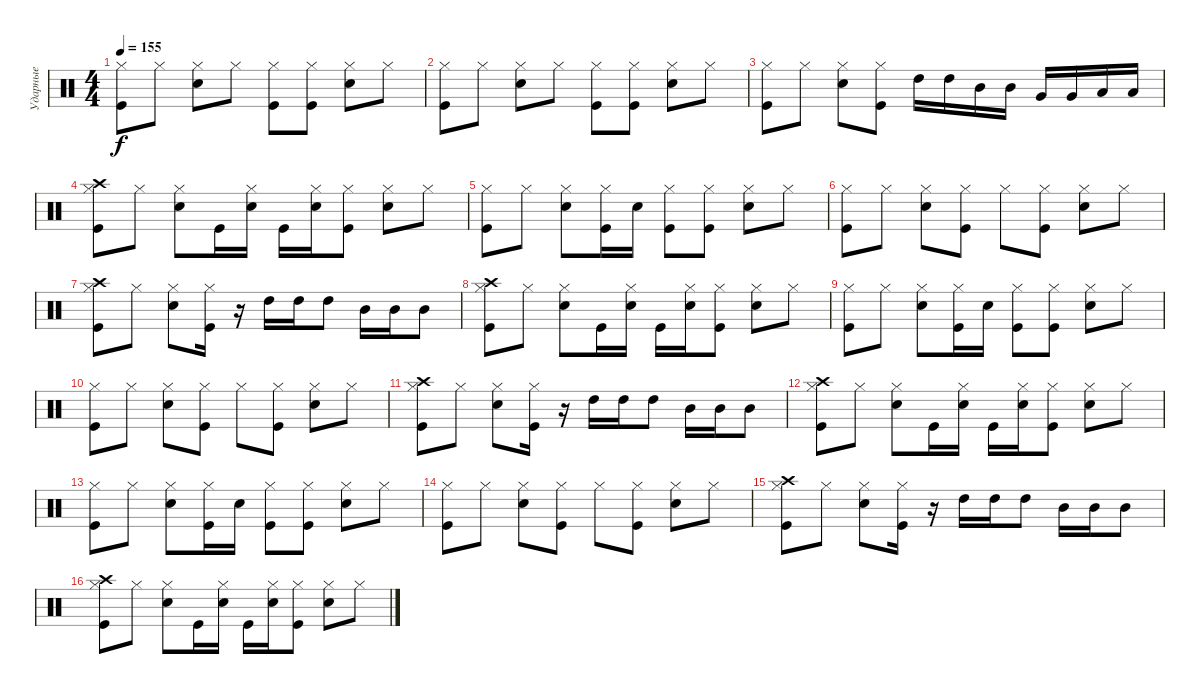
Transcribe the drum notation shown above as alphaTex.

\track ("Ударные" "Ударные") {instrument percussion}
\staff {score}
\articulation defaults
\ts (4 4)
\tempo 155
\clef neutral
\ks c
("Hi-Hat (closed)" "Kick (hit)").8{dy f} "Hi-Hat (closed)".8 ("Hi-Hat (closed)" "Snare (hit) 2").8 "Hi-Hat (closed)".8 ("Hi-Hat (closed)" "Kick (hit)").8 ("Hi-Hat (closed)" "Kick (hit)").8 ("Hi-Hat (closed)" "Snare (hit) 2").8 "Hi-Hat (closed)".8 |
("Hi-Hat (closed)" "Kick (hit)").8 "Hi-Hat (closed)".8 ("Hi-Hat (closed)" "Snare (hit) 2").8 "Hi-Hat (closed)".8 ("Hi-Hat (closed)" "Kick (hit)").8 ("Hi-Hat (closed)" "Kick (hit)").8 ("Hi-Hat (closed)" "Snare (hit) 2").8 "Hi-Hat (closed)".8 |
("Hi-Hat (closed)" "Kick (hit)").8 "Hi-Hat (closed)".8 ("Hi-Hat (closed)" "Snare (hit) 2").8 ("Hi-Hat (closed)" "Kick (hit)").8 "High Tom (hit)".16 "High Tom (hit)".16 "Mid Tom (hit)".16 "Mid Tom (hit)".16 "Very Low Tom (hit)".16 "Very Low Tom (hit)".16 "Low Floor Tom (hit)".16 "Low Floor Tom (hit)".16 |
("Crash high (hit)" "Hi-Hat (closed)" "Kick (hit)").8 "Hi-Hat (closed)".8 ("Hi-Hat (closed)" "Snare (hit) 2").8 "Kick (hit)".16 ("Hi-Hat (closed)" "Snare (hit) 2").16 "Kick (hit)".16 ("Hi-Hat (closed)" "Snare (hit) 2").16 ("Hi-Hat (closed)" "Kick (hit)").8 ("Hi-Hat (closed)" "Snare (hit) 2").8 "Hi-Hat (closed)".8 |
("Hi-Hat (closed)" "Kick (hit)").8 "Hi-Hat (closed)".8 ("Hi-Hat (closed)" "Snare (hit) 2").8 ("Hi-Hat (closed)" "Kick (hit)").16 "Snare (hit) 2".16 ("Hi-Hat (closed)" "Kick (hit)").8 ("Hi-Hat (closed)" "Kick (hit)").8 ("Hi-Hat (closed)" "Snare (hit) 2").8 "Hi-Hat (closed)".8 |
("Hi-Hat (closed)" "Kick (hit)").8 "Hi-Hat (closed)".8 ("Hi-Hat (closed)" "Snare (hit) 2").8 ("Hi-Hat (closed)" "Kick (hit)").8 "Hi-Hat (closed)".8 ("Hi-Hat (closed)" "Kick (hit)").8 ("Hi-Hat (closed)" "Snare (hit) 2").8 "Hi-Hat (closed)".8 |
("Crash high (hit)" "Hi-Hat (closed)" "Kick (hit)").8 "Hi-Hat (closed)".8 ("Hi-Hat (closed)" "Snare (hit) 2").8 ("Hi-Hat (closed)" "Kick (hit)").16 r.16 "High Tom (hit)".16 "High Tom (hit)".16 "High Tom (hit)".8 "Mid Tom (hit)".16 "Mid Tom (hit)".16 "Mid Tom (hit)".8 |
("Crash high (hit)" "Hi-Hat (closed)" "Kick (hit)").8 "Hi-Hat (closed)".8 ("Hi-Hat (closed)" "Snare (hit) 2").8 "Kick (hit)".16 ("Hi-Hat (closed)" "Snare (hit) 2").16 "Kick (hit)".16 ("Hi-Hat (closed)" "Snare (hit) 2").16 ("Hi-Hat (closed)" "Kick (hit)").8 ("Hi-Hat (closed)" "Snare (hit) 2").8 "Hi-Hat (closed)".8 |
("Hi-Hat (closed)" "Kick (hit)").8 "Hi-Hat (closed)".8 ("Hi-Hat (closed)" "Snare (hit) 2").8 ("Hi-Hat (closed)" "Kick (hit)").16 "Snare (hit) 2".16 ("Hi-Hat (closed)" "Kick (hit)").8 ("Hi-Hat (closed)" "Kick (hit)").8 ("Hi-Hat (closed)" "Snare (hit) 2").8 "Hi-Hat (closed)".8 |
("Hi-Hat (closed)" "Kick (hit)").8 "Hi-Hat (closed)".8 ("Hi-Hat (closed)" "Snare (hit) 2").8 ("Hi-Hat (closed)" "Kick (hit)").8 "Hi-Hat (closed)".8 ("Hi-Hat (closed)" "Kick (hit)").8 ("Hi-Hat (closed)" "Snare (hit) 2").8 "Hi-Hat (closed)".8 |
("Crash high (hit)" "Hi-Hat (closed)" "Kick (hit)").8 "Hi-Hat (closed)".8 ("Hi-Hat (closed)" "Snare (hit) 2").8 ("Hi-Hat (closed)" "Kick (hit)").16 r.16 "High Tom (hit)".16 "High Tom (hit)".16 "High Tom (hit)".8 "Mid Tom (hit)".16 "Mid Tom (hit)".16 "Mid Tom (hit)".8 |
("Crash high (hit)" "Hi-Hat (closed)" "Kick (hit)").8 "Hi-Hat (closed)".8 ("Hi-Hat (closed)" "Snare (hit) 2").8 "Kick (hit)".16 ("Hi-Hat (closed)" "Snare (hit) 2").16 "Kick (hit)".16 ("Hi-Hat (closed)" "Snare (hit) 2").16 ("Hi-Hat (closed)" "Kick (hit)").8 ("Hi-Hat (closed)" "Snare (hit) 2").8 "Hi-Hat (closed)".8 |
("Hi-Hat (closed)" "Kick (hit)").8 "Hi-Hat (closed)".8 ("Hi-Hat (closed)" "Snare (hit) 2").8 ("Hi-Hat (closed)" "Kick (hit)").16 "Snare (hit) 2".16 ("Hi-Hat (closed)" "Kick (hit)").8 ("Hi-Hat (closed)" "Kick (hit)").8 ("Hi-Hat (closed)" "Snare (hit) 2").8 "Hi-Hat (closed)".8 |
("Hi-Hat (closed)" "Kick (hit)").8 "Hi-Hat (closed)".8 ("Hi-Hat (closed)" "Snare (hit) 2").8 ("Hi-Hat (closed)" "Kick (hit)").8 "Hi-Hat (closed)".8 ("Hi-Hat (closed)" "Kick (hit)").8 ("Hi-Hat (closed)" "Snare (hit) 2").8 "Hi-Hat (closed)".8 |
("Crash high (hit)" "Hi-Hat (closed)" "Kick (hit)").8 "Hi-Hat (closed)".8 ("Hi-Hat (closed)" "Snare (hit) 2").8 ("Hi-Hat (closed)" "Kick (hit)").16 r.16 "High Tom (hit)".16 "High Tom (hit)".16 "High Tom (hit)".8 "Mid Tom (hit)".16 "Mid Tom (hit)".16 "Mid Tom (hit)".8 |
("Crash high (hit)" "Hi-Hat (closed)" "Kick (hit)").8 "Hi-Hat (closed)".8 ("Hi-Hat (closed)" "Snare (hit) 2").8 "Kick (hit)".16 ("Hi-Hat (closed)" "Snare (hit) 2").16 "Kick (hit)".16 ("Hi-Hat (closed)" "Snare (hit) 2").16 ("Hi-Hat (closed)" "Kick (hit)").8 ("Hi-Hat (closed)" "Snare (hit) 2").8 "Hi-Hat (closed)".8
